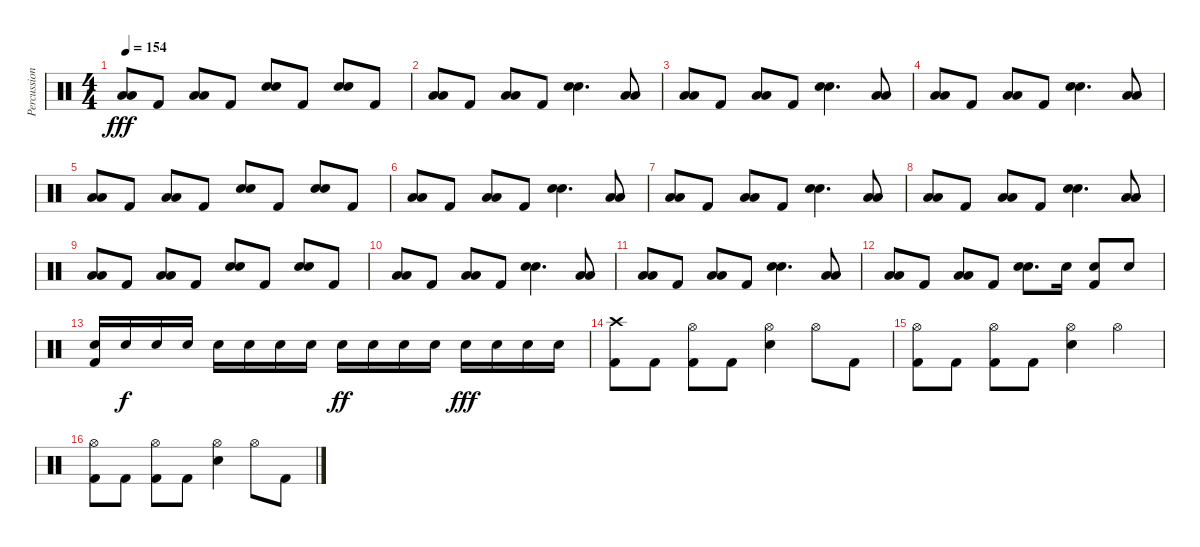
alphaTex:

\track ("Percussion" "Percussion") {instrument percussion}
\staff {score}
\articulation defaults
\ts (4 4)
\tempo 154
\clef neutral
\ks c
("Low Floor Tom (hit)" "Low Floor Tom (hit)").8{bd 240 dy fff} "Kick (hit) 2".8 ("Low Floor Tom (hit)" "Low Floor Tom (hit)").8{bd 240} "Kick (hit) 2".8 ("Electric Snare (hit)" "Electric Snare (hit)").8{bd 240} "Kick (hit) 2".8 ("Electric Snare (hit)" "Electric Snare (hit)").8{bd 240} "Kick (hit) 2".8 |
("Low Floor Tom (hit)" "Low Floor Tom (hit)").8{bd 240} "Kick (hit) 2".8 ("Low Floor Tom (hit)" "Low Floor Tom (hit)").8{bd 240} "Kick (hit) 2".8 ("Electric Snare (hit)" "Electric Snare (hit)").4{d bd 240} ("Low Floor Tom (hit)" "Low Floor Tom (hit)").8{bd 240} |
("Low Floor Tom (hit)" "Low Floor Tom (hit)").8{bd 240} "Kick (hit) 2".8 ("Low Floor Tom (hit)" "Low Floor Tom (hit)").8{bd 240} "Kick (hit) 2".8 ("Electric Snare (hit)" "Electric Snare (hit)").4{d bd 240} ("Low Floor Tom (hit)" "Low Floor Tom (hit)").8{bd 240} |
("Low Floor Tom (hit)" "Low Floor Tom (hit)").8{bd 240} "Kick (hit) 2".8 ("Low Floor Tom (hit)" "Low Floor Tom (hit)").8{bd 240} "Kick (hit) 2".8 ("Electric Snare (hit)" "Electric Snare (hit)").4{d bd 240} ("Low Floor Tom (hit)" "Low Floor Tom (hit)").8{bd 240} |
("Low Floor Tom (hit)" "Low Floor Tom (hit)").8{bd 240} "Kick (hit) 2".8 ("Low Floor Tom (hit)" "Low Floor Tom (hit)").8{bd 240} "Kick (hit) 2".8 ("Electric Snare (hit)" "Electric Snare (hit)").8{bd 240} "Kick (hit) 2".8 ("Electric Snare (hit)" "Electric Snare (hit)").8{bd 240} "Kick (hit) 2".8 |
("Low Floor Tom (hit)" "Low Floor Tom (hit)").8{bd 240} "Kick (hit) 2".8 ("Low Floor Tom (hit)" "Low Floor Tom (hit)").8{bd 240} "Kick (hit) 2".8 ("Electric Snare (hit)" "Electric Snare (hit)").4{d bd 240} ("Low Floor Tom (hit)" "Low Floor Tom (hit)").8{bd 240} |
("Low Floor Tom (hit)" "Low Floor Tom (hit)").8{bd 240} "Kick (hit) 2".8 ("Low Floor Tom (hit)" "Low Floor Tom (hit)").8{bd 240} "Kick (hit) 2".8 ("Electric Snare (hit)" "Electric Snare (hit)").4{d bd 240} ("Low Floor Tom (hit)" "Low Floor Tom (hit)").8{bd 240} |
("Low Floor Tom (hit)" "Low Floor Tom (hit)").8{bd 240} "Kick (hit) 2".8 ("Low Floor Tom (hit)" "Low Floor Tom (hit)").8{bd 240} "Kick (hit) 2".8 ("Electric Snare (hit)" "Electric Snare (hit)").4{d bd 240} ("Low Floor Tom (hit)" "Low Floor Tom (hit)").8{bd 240} |
("Low Floor Tom (hit)" "Low Floor Tom (hit)").8{bd 240} "Kick (hit) 2".8 ("Low Floor Tom (hit)" "Low Floor Tom (hit)").8{bd 240} "Kick (hit) 2".8 ("Electric Snare (hit)" "Electric Snare (hit)").8{bd 240} "Kick (hit) 2".8 ("Electric Snare (hit)" "Electric Snare (hit)").8{bd 240} "Kick (hit) 2".8 |
("Low Floor Tom (hit)" "Low Floor Tom (hit)").8{bd 240} "Kick (hit) 2".8 ("Low Floor Tom (hit)" "Low Floor Tom (hit)").8{bd 240} "Kick (hit) 2".8 ("Electric Snare (hit)" "Electric Snare (hit)").4{d bd 240} ("Low Floor Tom (hit)" "Low Floor Tom (hit)").8{bd 240} |
("Low Floor Tom (hit)" "Low Floor Tom (hit)").8{bd 240} "Kick (hit) 2".8 ("Low Floor Tom (hit)" "Low Floor Tom (hit)").8{bd 240} "Kick (hit) 2".8 ("Electric Snare (hit)" "Electric Snare (hit)").4{d bd 240} ("Low Floor Tom (hit)" "Low Floor Tom (hit)").8{bd 240} |
("Low Floor Tom (hit)" "Low Floor Tom (hit)").8{bd 240} "Kick (hit) 2".8 ("Low Floor Tom (hit)" "Low Floor Tom (hit)").8{bd 240} "Kick (hit) 2".8 ("Electric Snare (hit)" "Electric Snare (hit)").8{d bd 240} "Electric Snare (hit)".16 ("Kick (hit) 2" "Electric Snare (hit)").8 "Electric Snare (hit)".8 |
("Kick (hit) 2" "Electric Snare (hit)").16 "Electric Snare (hit)".16{dy f} "Electric Snare (hit)".16 "Electric Snare (hit)".16 "Electric Snare (hit)".16 "Electric Snare (hit)".16 "Electric Snare (hit)".16 "Electric Snare (hit)".16 "Electric Snare (hit)".16{dy ff} "Electric Snare (hit)".16 "Electric Snare (hit)".16 "Electric Snare (hit)".16 "Electric Snare (hit)".16{dy fff} "Electric Snare (hit)".16 "Electric Snare (hit)".16 "Electric Snare (hit)".16 |
("Crash high (hit)" "Kick (hit) 2").8 "Kick (hit) 2".8 ("Hi-Hat (open)" "Kick (hit) 2").8 "Kick (hit) 2".8 ("Hi-Hat (open)" "Electric Snare (hit)").4 "Hi-Hat (open)".8 "Kick (hit) 2".8 |
("Hi-Hat (open)" "Kick (hit) 2").8 "Kick (hit) 2".8 ("Hi-Hat (open)" "Kick (hit) 2").8 "Kick (hit) 2".8 ("Hi-Hat (open)" "Electric Snare (hit)").4 "Hi-Hat (open)".4 |
("Hi-Hat (open)" "Kick (hit) 2").8 "Kick (hit) 2".8 ("Hi-Hat (open)" "Kick (hit) 2").8 "Kick (hit) 2".8 ("Hi-Hat (open)" "Electric Snare (hit)").4 "Hi-Hat (open)".8 "Kick (hit) 2".8
